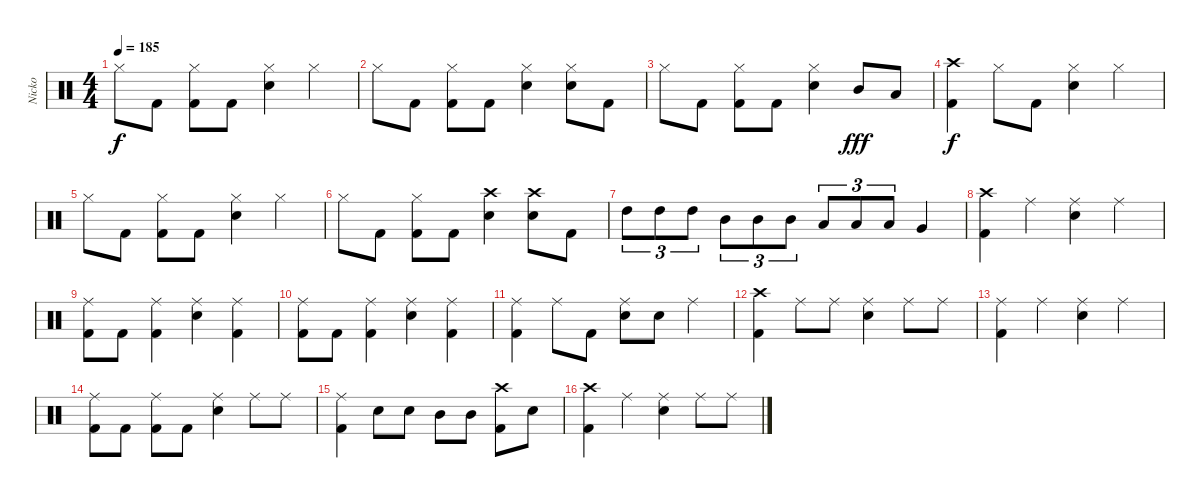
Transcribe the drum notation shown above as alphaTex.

\track ("Nicko" "Nicko") {instrument percussion}
\staff {score}
\articulation defaults
\ts (4 4)
\tempo 185
\clef neutral
\ks c "Hi-Hat (closed)".8{dy f} "Kick (hit) 2".8
("Hi-Hat (closed)" "Kick (hit) 2").8 "Kick (hit) 2".8 ("Hi-Hat (closed)" "Snare (hit) 2").4 "Hi-Hat (closed)".4 |
"Hi-Hat (closed)".8 "Kick (hit) 2".8 ("Hi-Hat (closed)" "Kick (hit) 2").8 "Kick (hit) 2".8 ("Hi-Hat (closed)" "Snare (hit) 2").4 ("Hi-Hat (closed)" "Snare (hit) 2").8 "Kick (hit) 2".8 |
"Hi-Hat (closed)".8 "Kick (hit) 2".8 ("Hi-Hat (closed)" "Kick (hit) 2").8 "Kick (hit) 2".8 ("Hi-Hat (closed)" "Snare (hit) 2").4 "Mid Tom (hit)".8{dy fff} "Low Tom (hit)".8 |
("Crash high (hit)" "Kick (hit) 2").4{dy f} "Hi-Hat (closed)".8 "Kick (hit) 2".8 ("Hi-Hat (closed)" "Snare (hit) 2").4 "Hi-Hat (closed)".4 |
"Hi-Hat (closed)".8 "Kick (hit) 2".8 ("Hi-Hat (closed)" "Kick (hit) 2").8 "Kick (hit) 2".8 ("Hi-Hat (closed)" "Snare (hit) 2").4 "Hi-Hat (closed)".4 |
"Hi-Hat (closed)".8 "Kick (hit) 2".8 ("Hi-Hat (closed)" "Kick (hit) 2").8 "Kick (hit) 2".8 ("Crash high (hit)" "Snare (hit) 2").4 ("Crash high (hit)" "Snare (hit) 2").8 "Kick (hit) 2".8 |
"High Tom (hit)".8{tu (3 2)} "High Tom (hit)".8{tu (3 2)} "High Tom (hit)".8{tu (3 2)} "Mid Tom (hit)".8{tu (3 2)} "Mid Tom (hit)".8{tu (3 2)} "Mid Tom (hit)".8{tu (3 2)} "Low Tom (hit)".8{tu (3 2)} "Low Tom (hit)".8{tu (3 2)} "Low Tom (hit)".8{tu (3 2)} "Very Low Tom (hit)".4 |
("Crash high (hit)" "Kick (hit) 2").4 "Ride (middle)".4 ("Ride (middle)" "Snare (hit) 2").4 "Ride (middle)".4 |
("Ride (middle)" "Kick (hit) 2").8 "Kick (hit) 2".8 ("Ride (middle)" "Kick (hit) 2").4 ("Ride (middle)" "Snare (hit) 2").4 ("Ride (middle)" "Kick (hit) 2").4 |
("Ride (middle)" "Kick (hit) 2").8 "Kick (hit) 2".8 ("Ride (middle)" "Kick (hit) 2").4 ("Ride (middle)" "Snare (hit) 2").4 ("Ride (middle)" "Kick (hit) 2").4 |
("Ride (middle)" "Kick (hit) 2").4 "Ride (middle)".8 "Kick (hit) 2".8 ("Ride (middle)" "Snare (hit) 2").8 "Snare (hit) 2".8 "Ride (middle)".4 |
("Crash high (hit)" "Kick (hit) 2").4 "Ride (middle)".8 "Ride (middle)".8 ("Ride (middle)" "Snare (hit) 2").4 "Ride (middle)".8 "Ride (middle)".8 |
("Ride (middle)" "Kick (hit) 2").4 "Ride (middle)".4 ("Ride (middle)" "Snare (hit) 2").4 "Ride (middle)".4 |
("Ride (middle)" "Kick (hit) 2").8 "Kick (hit) 2".8 ("Ride (middle)" "Kick (hit) 2").8 "Kick (hit) 2".8 ("Ride (middle)" "Snare (hit) 2").4 "Ride (middle)".8 "Ride (middle)".8 |
("Ride (middle)" "Kick (hit) 2").4 "Snare (hit) 2".8 "Snare (hit) 2".8 "Mid Tom (hit)".8 "Mid Tom (hit)".8 ("Crash high (hit)" "Kick (hit) 2").8 "Snare (hit) 2".8 |
("Crash high (hit)" "Kick (hit) 2").4 "Ride (middle)".4 ("Ride (middle)" "Snare (hit) 2").4 "Ride (middle)".8 "Ride (middle)".8
